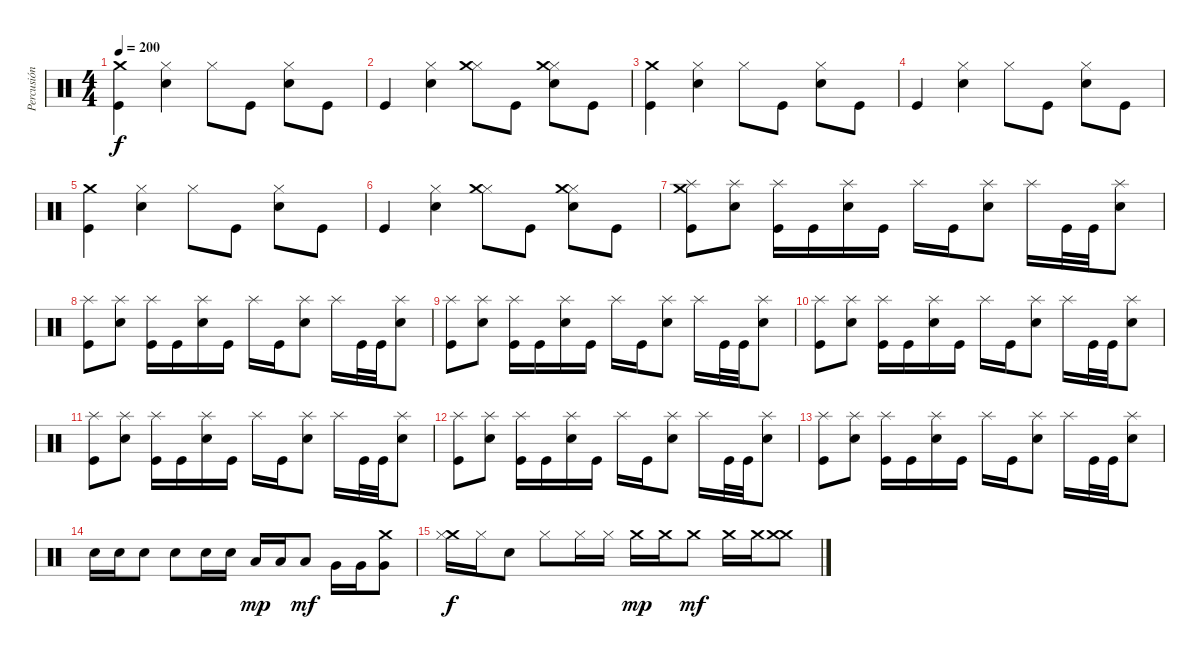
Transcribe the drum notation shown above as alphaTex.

\track ("Percusión" "Percusión") {instrument percussion}
\staff {score}
\articulation defaults
\ts (4 4)
\tempo 200
\clef neutral
\ks c
("Kick (hit)" "Crash medium (hit)").4{dy f} ("Snare (hit) 2" "Hi-Hat (closed)").4 "Hi-Hat (closed)".8 "Kick (hit)".8 ("Snare (hit) 2" "Hi-Hat (closed)").8 "Kick (hit)".8 |
"Kick (hit)".4 ("Snare (hit) 2" "Hi-Hat (closed)").4 ("Hi-Hat (closed)" "Crash medium (hit)").8 "Kick (hit)".8 ("Snare (hit) 2" "Hi-Hat (closed)" "Crash medium (hit)").8 "Kick (hit)".8 |
("Kick (hit)" "Crash medium (hit)").4 ("Snare (hit) 2" "Hi-Hat (closed)").4 "Hi-Hat (closed)".8 "Kick (hit)".8 ("Snare (hit) 2" "Hi-Hat (closed)").8 "Kick (hit)".8 |
"Kick (hit)".4 ("Snare (hit) 2" "Hi-Hat (closed)").4 "Hi-Hat (closed)".8 "Kick (hit)".8 ("Snare (hit) 2" "Hi-Hat (closed)").8 "Kick (hit)".8 |
("Kick (hit)" "Crash medium (hit)").4 ("Snare (hit) 2" "Hi-Hat (closed)").4 "Hi-Hat (closed)".8 "Kick (hit)".8 ("Snare (hit) 2" "Hi-Hat (closed)").8 "Kick (hit)".8 |
"Kick (hit)".4 ("Snare (hit) 2" "Hi-Hat (closed)").4 ("Hi-Hat (closed)" "Crash medium (hit)").8 "Kick (hit)".8 ("Snare (hit) 2" "Hi-Hat (closed)" "Crash medium (hit)").8 "Kick (hit)".8 |
("Splash (hit)" "Kick (hit)" "Crash medium (hit)").8 ("Splash (hit)" "Electric Snare (hit)").8 ("Splash (hit)" "Kick (hit)").16 "Kick (hit)".16 ("Splash (hit)" "Electric Snare (hit)").16 "Kick (hit)".16 "Splash (hit)".16 "Kick (hit)".16 ("Splash (hit)" "Electric Snare (hit)").8 "Splash (hit)".16 "Kick (hit)".32 "Kick (hit)".32 ("Splash (hit)" "Electric Snare (hit)").8 |
("Splash (hit)" "Kick (hit)").8 ("Splash (hit)" "Electric Snare (hit)").8 ("Splash (hit)" "Kick (hit)").16 "Kick (hit)".16 ("Splash (hit)" "Electric Snare (hit)").16 "Kick (hit)".16 "Splash (hit)".16 "Kick (hit)".16 ("Splash (hit)" "Electric Snare (hit)").8 "Splash (hit)".16 "Kick (hit)".32 "Kick (hit)".32 ("Splash (hit)" "Electric Snare (hit)").8 |
("Splash (hit)" "Kick (hit)").8 ("Splash (hit)" "Electric Snare (hit)").8 ("Splash (hit)" "Kick (hit)").16 "Kick (hit)".16 ("Splash (hit)" "Electric Snare (hit)").16 "Kick (hit)".16 "Splash (hit)".16 "Kick (hit)".16 ("Splash (hit)" "Electric Snare (hit)").8 "Splash (hit)".16 "Kick (hit)".32 "Kick (hit)".32 ("Splash (hit)" "Electric Snare (hit)").8 |
("Splash (hit)" "Kick (hit)").8 ("Splash (hit)" "Electric Snare (hit)").8 ("Splash (hit)" "Kick (hit)").16 "Kick (hit)".16 ("Splash (hit)" "Electric Snare (hit)").16 "Kick (hit)".16 "Splash (hit)".16 "Kick (hit)".16 ("Splash (hit)" "Electric Snare (hit)").8 "Splash (hit)".16 "Kick (hit)".32 "Kick (hit)".32 ("Splash (hit)" "Electric Snare (hit)").8 |
("Splash (hit)" "Kick (hit)").8 ("Splash (hit)" "Electric Snare (hit)").8 ("Splash (hit)" "Kick (hit)").16 "Kick (hit)".16 ("Splash (hit)" "Electric Snare (hit)").16 "Kick (hit)".16 "Splash (hit)".16 "Kick (hit)".16 ("Splash (hit)" "Electric Snare (hit)").8 "Splash (hit)".16 "Kick (hit)".32 "Kick (hit)".32 ("Splash (hit)" "Electric Snare (hit)").8 |
("Splash (hit)" "Kick (hit)").8 ("Splash (hit)" "Electric Snare (hit)").8 ("Splash (hit)" "Kick (hit)").16 "Kick (hit)".16 ("Splash (hit)" "Electric Snare (hit)").16 "Kick (hit)".16 "Splash (hit)".16 "Kick (hit)".16 ("Splash (hit)" "Electric Snare (hit)").8 "Splash (hit)".16 "Kick (hit)".32 "Kick (hit)".32 ("Splash (hit)" "Electric Snare (hit)").8 |
("Splash (hit)" "Kick (hit)").8 ("Splash (hit)" "Electric Snare (hit)").8 ("Splash (hit)" "Kick (hit)").16 "Kick (hit)".16 ("Splash (hit)" "Electric Snare (hit)").16 "Kick (hit)".16 "Splash (hit)".16 "Kick (hit)".16 ("Splash (hit)" "Electric Snare (hit)").8 "Splash (hit)".16 "Kick (hit)".32 "Kick (hit)".32 ("Splash (hit)" "Electric Snare (hit)").8 |
"Electric Snare (hit)".16 "Electric Snare (hit)".16 "Electric Snare (hit)".8 "Electric Snare (hit)".8 "Electric Snare (hit)".16 "Electric Snare (hit)".16 "Low Tom (hit)".16{dy mp} "Low Tom (hit)".16 "Low Tom (hit)".8{dy mf} "Very Low Tom (hit)".16 "Very Low Tom (hit)".16 ("Very Low Tom (hit)" "Crash medium (hit)").8 |
("Crash medium (hit)" "Hi-Hat (closed)").16{dy f} "Hi-Hat (closed)".16 "Snare (hit)".8 "Hi-Hat (closed)".8 "Hi-Hat (closed)".16 "Hi-Hat (closed)".16 "Crash medium (hit)".16{dy mp} "Crash medium (hit)".16 "Crash medium (hit)".8{dy mf} "Crash medium (hit)".16 "Crash medium (hit)".16 ("Crash medium (hit)" "Crash medium (hit)").8
